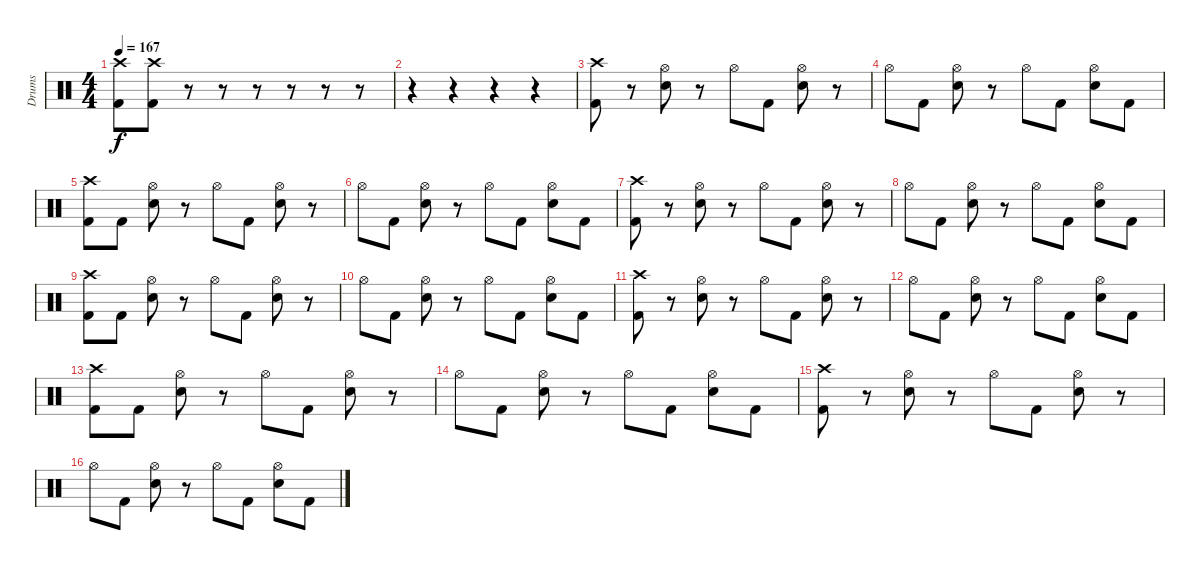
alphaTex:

\track ("Drums" "Drums") {instrument percussion}
\staff {score}
\articulation defaults
\ts (4 4)
\tempo 167
\clef neutral
\ks c
("Crash high (hit)" "Kick (hit) 2").8{dy f} ("Crash high (hit)" "Kick (hit) 2").8 r.8 r.8 r.8 r.8 r.8 r.8 |
r.4 r.4 r.4 r.4 |
("Crash high (hit)" "Kick (hit) 2").8 r.8 ("Hi-Hat (open)" "Snare (hit) 2").8 r.8 "Hi-Hat (open)".8 "Kick (hit) 2".8 ("Hi-Hat (open)" "Snare (hit) 2").8 r.8 |
"Hi-Hat (open)".8 "Kick (hit) 2".8 ("Hi-Hat (open)" "Snare (hit) 2").8 r.8 "Hi-Hat (open)".8 "Kick (hit) 2".8 ("Hi-Hat (open)" "Snare (hit) 2").8 "Kick (hit) 2".8 |
("Crash high (hit)" "Kick (hit) 2").8 "Kick (hit) 2".8 ("Hi-Hat (open)" "Snare (hit) 2").8 r.8 "Hi-Hat (open)".8 "Kick (hit) 2".8 ("Hi-Hat (open)" "Snare (hit) 2").8 r.8 |
"Hi-Hat (open)".8 "Kick (hit) 2".8 ("Hi-Hat (open)" "Snare (hit) 2").8 r.8 "Hi-Hat (open)".8 "Kick (hit) 2".8 ("Hi-Hat (open)" "Snare (hit) 2").8 "Kick (hit) 2".8 |
("Crash high (hit)" "Kick (hit) 2").8 r.8 ("Hi-Hat (open)" "Snare (hit) 2").8 r.8 "Hi-Hat (open)".8 "Kick (hit) 2".8 ("Hi-Hat (open)" "Snare (hit) 2").8 r.8 |
"Hi-Hat (open)".8 "Kick (hit) 2".8 ("Hi-Hat (open)" "Snare (hit) 2").8 r.8 "Hi-Hat (open)".8 "Kick (hit) 2".8 ("Hi-Hat (open)" "Snare (hit) 2").8 "Kick (hit) 2".8 |
("Crash high (hit)" "Kick (hit) 2").8 "Kick (hit) 2".8 ("Hi-Hat (open)" "Snare (hit) 2").8 r.8 "Hi-Hat (open)".8 "Kick (hit) 2".8 ("Hi-Hat (open)" "Snare (hit) 2").8 r.8 |
"Hi-Hat (open)".8 "Kick (hit) 2".8 ("Hi-Hat (open)" "Snare (hit) 2").8 r.8 "Hi-Hat (open)".8 "Kick (hit) 2".8 ("Hi-Hat (open)" "Snare (hit) 2").8 "Kick (hit) 2".8 |
("Crash high (hit)" "Kick (hit) 2").8 r.8 ("Hi-Hat (open)" "Snare (hit) 2").8 r.8 "Hi-Hat (open)".8 "Kick (hit) 2".8 ("Hi-Hat (open)" "Snare (hit) 2").8 r.8 |
"Hi-Hat (open)".8 "Kick (hit) 2".8 ("Hi-Hat (open)" "Snare (hit) 2").8 r.8 "Hi-Hat (open)".8 "Kick (hit) 2".8 ("Hi-Hat (open)" "Snare (hit) 2").8 "Kick (hit) 2".8 |
("Crash high (hit)" "Kick (hit) 2").8 "Kick (hit) 2".8 ("Hi-Hat (open)" "Snare (hit) 2").8 r.8 "Hi-Hat (open)".8 "Kick (hit) 2".8 ("Hi-Hat (open)" "Snare (hit) 2").8 r.8 |
"Hi-Hat (open)".8 "Kick (hit) 2".8 ("Hi-Hat (open)" "Snare (hit) 2").8 r.8 "Hi-Hat (open)".8 "Kick (hit) 2".8 ("Hi-Hat (open)" "Snare (hit) 2").8 "Kick (hit) 2".8 |
("Crash high (hit)" "Kick (hit) 2").8 r.8 ("Hi-Hat (open)" "Snare (hit) 2").8 r.8 "Hi-Hat (open)".8 "Kick (hit) 2".8 ("Hi-Hat (open)" "Snare (hit) 2").8 r.8 |
"Hi-Hat (open)".8 "Kick (hit) 2".8 ("Hi-Hat (open)" "Snare (hit) 2").8 r.8 "Hi-Hat (open)".8 "Kick (hit) 2".8 ("Hi-Hat (open)" "Snare (hit) 2").8 "Kick (hit) 2".8
